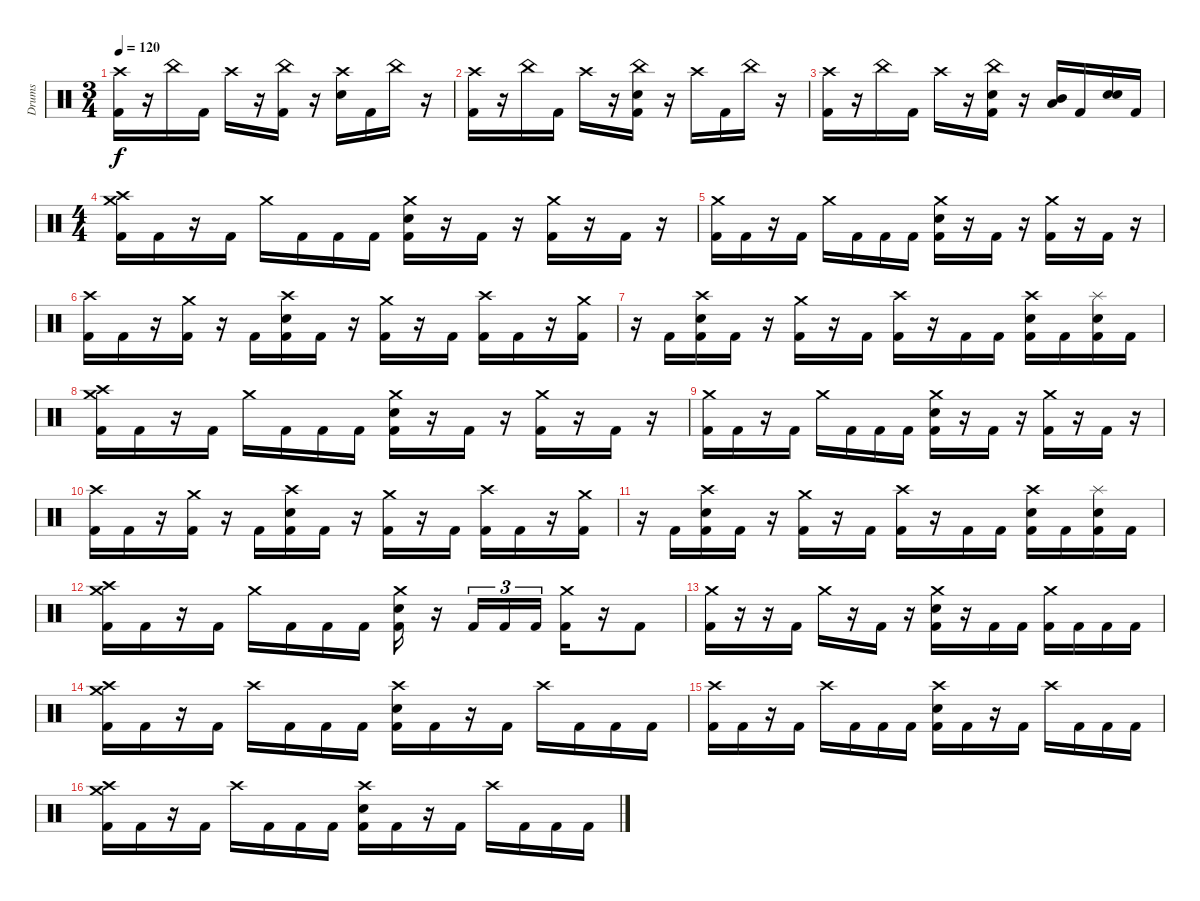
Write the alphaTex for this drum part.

\track ("Drums" "Drums") {instrument percussion}
\staff {score}
\articulation defaults
\ts (3 4)
\tempo 120
\clef neutral
\ks c
("Crash high (hit)" "Kick (hit) 2").16{dy f} r.16 "China (hit)".16 "Kick (hit) 2".16 "Crash high (hit)".16 r.16 ("China (hit)" "Kick (hit) 2").16 r.16 ("Crash high (hit)" "Electric Snare (hit)").16 "Kick (hit) 2".16 "China (hit)".16 r.16 |
("Crash high (hit)" "Kick (hit) 2").16 r.16 "China (hit)".16 "Kick (hit) 2".16 "Crash high (hit)".16 r.16 ("China (hit)" "Electric Snare (hit)" "Kick (hit) 2").16 r.16 "Crash high (hit)".16 "Kick (hit) 2".16 "China (hit)".16 r.16 |
("Crash high (hit)" "Kick (hit) 2").16 r.16 "China (hit)".16 "Kick (hit) 2".16 "Crash high (hit)".16 r.16 ("China (hit)" "Electric Snare (hit)" "Kick (hit) 2").16 r.16 ("Mid Tom (hit)" "Low Tom (hit)").16 "Kick (hit) 2".16 ("Electric Snare (hit)" "Electric Snare (hit)").16{bd 480} "Kick (hit) 2".16 |
\ts (4 4)
("Crash high (hit)" "Crash medium (hit)" "Kick (hit) 2").16 "Kick (hit) 2".16 r.16 "Kick (hit) 2".16 "Crash medium (hit)".16 "Kick (hit) 2".16 "Kick (hit) 2".16 "Kick (hit) 2".16 ("Crash medium (hit)" "Electric Snare (hit)" "Kick (hit) 2").16 r.16 "Kick (hit) 2".16 r.16 ("Crash medium (hit)" "Kick (hit) 2").16 r.16 "Kick (hit) 2".16 r.16 |
("Crash medium (hit)" "Kick (hit) 2").16 "Kick (hit) 2".16 r.16 "Kick (hit) 2".16 "Crash medium (hit)".16 "Kick (hit) 2".16 "Kick (hit) 2".16 "Kick (hit) 2".16 ("Crash medium (hit)" "Electric Snare (hit)" "Kick (hit) 2").16 r.16 "Kick (hit) 2".16 r.16 ("Crash medium (hit)" "Kick (hit) 2").16 r.16 "Kick (hit) 2".16 r.16 |
("Crash high (hit)" "Kick (hit) 2").16 "Kick (hit) 2".16 r.16 ("Crash medium (hit)" "Kick (hit) 2").16 r.16 "Kick (hit) 2".16 ("Crash high (hit)" "Electric Snare (hit)" "Kick (hit) 2").16 "Kick (hit) 2".16 r.16 ("Crash medium (hit)" "Kick (hit) 2").16 r.16 "Kick (hit) 2".16 ("Crash high (hit)" "Kick (hit) 2").16 "Kick (hit) 2".16 r.16 ("Crash medium (hit)" "Kick (hit) 2").16 |
r.16 "Kick (hit) 2".16 ("Crash high (hit)" "Electric Snare (hit)" "Kick (hit) 2").16 "Kick (hit) 2".16 r.16 ("Crash medium (hit)" "Kick (hit) 2").16 r.16 "Kick (hit) 2".16 ("Crash high (hit)" "Kick (hit) 2").16 r.16 "Kick (hit) 2".16 "Kick (hit) 2".16 ("Crash high (hit)" "Electric Snare (hit)" "Kick (hit) 2").16 "Kick (hit) 2".16 ("Splash (hit)" "Electric Snare (hit)" "Kick (hit) 2").16 "Kick (hit) 2".16 |
("Crash high (hit)" "Crash medium (hit)" "Kick (hit) 2").16 "Kick (hit) 2".16 r.16 "Kick (hit) 2".16 "Crash medium (hit)".16 "Kick (hit) 2".16 "Kick (hit) 2".16 "Kick (hit) 2".16 ("Crash medium (hit)" "Electric Snare (hit)" "Kick (hit) 2").16 r.16 "Kick (hit) 2".16 r.16 ("Crash medium (hit)" "Kick (hit) 2").16 r.16 "Kick (hit) 2".16 r.16 |
("Crash medium (hit)" "Kick (hit) 2").16 "Kick (hit) 2".16 r.16 "Kick (hit) 2".16 "Crash medium (hit)".16 "Kick (hit) 2".16 "Kick (hit) 2".16 "Kick (hit) 2".16 ("Crash medium (hit)" "Electric Snare (hit)" "Kick (hit) 2").16 r.16 "Kick (hit) 2".16 r.16 ("Crash medium (hit)" "Kick (hit) 2").16 r.16 "Kick (hit) 2".16 r.16 |
("Crash high (hit)" "Kick (hit) 2").16 "Kick (hit) 2".16 r.16 ("Crash medium (hit)" "Kick (hit) 2").16 r.16 "Kick (hit) 2".16 ("Crash high (hit)" "Electric Snare (hit)" "Kick (hit) 2").16 "Kick (hit) 2".16 r.16 ("Crash medium (hit)" "Kick (hit) 2").16 r.16 "Kick (hit) 2".16 ("Crash high (hit)" "Kick (hit) 2").16 "Kick (hit) 2".16 r.16 ("Crash medium (hit)" "Kick (hit) 2").16 |
r.16 "Kick (hit) 2".16 ("Crash high (hit)" "Electric Snare (hit)" "Kick (hit) 2").16 "Kick (hit) 2".16 r.16 ("Crash medium (hit)" "Kick (hit) 2").16 r.16 "Kick (hit) 2".16 ("Crash high (hit)" "Kick (hit) 2").16 r.16 "Kick (hit) 2".16 "Kick (hit) 2".16 ("Crash high (hit)" "Electric Snare (hit)" "Kick (hit) 2").16 "Kick (hit) 2".16 ("Splash (hit)" "Electric Snare (hit)" "Kick (hit) 2").16 "Kick (hit) 2".16 |
("Crash high (hit)" "Crash medium (hit)" "Kick (hit) 2").16 "Kick (hit) 2".16 r.16 "Kick (hit) 2".16 "Crash medium (hit)".16 "Kick (hit) 2".16 "Kick (hit) 2".16 "Kick (hit) 2".16 ("Crash medium (hit)" "Electric Snare (hit)" "Kick (hit) 2").16 r.16 "Kick (hit) 2".16{tu (3 2)} "Kick (hit) 2".16{tu (3 2)} "Kick (hit) 2".16{tu (3 2)} ("Crash medium (hit)" "Kick (hit) 2").16 r.16 "Kick (hit) 2".8 |
("Crash medium (hit)" "Kick (hit) 2").16 r.16 r.16 "Kick (hit) 2".16 "Crash medium (hit)".16 r.16 "Kick (hit) 2".16 r.16 ("Crash medium (hit)" "Electric Snare (hit)" "Kick (hit) 2").16 r.16 "Kick (hit) 2".16 "Kick (hit) 2".16 ("Crash medium (hit)" "Kick (hit) 2").16 "Kick (hit) 2".16 "Kick (hit) 2".16 "Kick (hit) 2".16 |
("Crash high (hit)" "Crash medium (hit)" "Kick (hit) 2").16 "Kick (hit) 2".16 r.16 "Kick (hit) 2".16 "Crash high (hit)".16 "Kick (hit) 2".16 "Kick (hit) 2".16 "Kick (hit) 2".16 ("Crash high (hit)" "Electric Snare (hit)" "Kick (hit) 2").16 "Kick (hit) 2".16 r.16 "Kick (hit) 2".16 "Crash high (hit)".16 "Kick (hit) 2".16 "Kick (hit) 2".16 "Kick (hit) 2".16 |
("Crash high (hit)" "Kick (hit) 2").16 "Kick (hit) 2".16 r.16 "Kick (hit) 2".16 "Crash high (hit)".16 "Kick (hit) 2".16 "Kick (hit) 2".16 "Kick (hit) 2".16 ("Crash high (hit)" "Electric Snare (hit)" "Kick (hit) 2").16 "Kick (hit) 2".16 r.16 "Kick (hit) 2".16 "Crash high (hit)".16 "Kick (hit) 2".16 "Kick (hit) 2".16 "Kick (hit) 2".16 |
("Crash high (hit)" "Crash medium (hit)" "Kick (hit) 2").16 "Kick (hit) 2".16 r.16 "Kick (hit) 2".16 "Crash high (hit)".16 "Kick (hit) 2".16 "Kick (hit) 2".16 "Kick (hit) 2".16 ("Crash high (hit)" "Electric Snare (hit)" "Kick (hit) 2").16 "Kick (hit) 2".16 r.16 "Kick (hit) 2".16 "Crash high (hit)".16 "Kick (hit) 2".16 "Kick (hit) 2".16 "Kick (hit) 2".16
